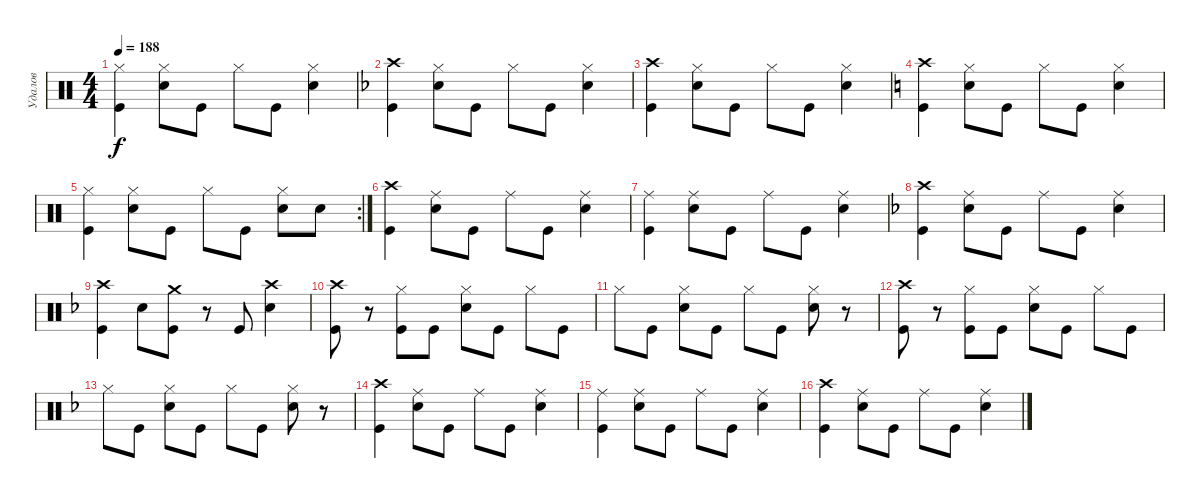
\track ("Удалов" "Удалов") {instrument percussion}
\staff {score}
\articulation defaults
\ts (4 4)
\tempo 188
\clef neutral
\ks c
("Hi-Hat (closed)" "Kick (hit)").4{dy f} ("Hi-Hat (closed)" "Electric Snare (hit)").8 "Kick (hit)".8 "Hi-Hat (closed)".8 "Kick (hit)".8 ("Hi-Hat (closed)" "Electric Snare (hit)").4 |
\ks f
("Crash high (hit)" "Kick (hit)").4 ("Hi-Hat (closed)" "Electric Snare (hit)").8 "Kick (hit)".8 "Hi-Hat (closed)".8 "Kick (hit)".8 ("Hi-Hat (closed)" "Electric Snare (hit)").4 |
("Crash high (hit)" "Kick (hit)").4 ("Hi-Hat (closed)" "Electric Snare (hit)").8 "Kick (hit)".8 "Hi-Hat (closed)".8 "Kick (hit)".8 ("Hi-Hat (closed)" "Electric Snare (hit)").4 |
\ks c
("Crash high (hit)" "Kick (hit)").4 ("Hi-Hat (closed)" "Electric Snare (hit)").8 "Kick (hit)".8 "Hi-Hat (closed)".8 "Kick (hit)".8 ("Hi-Hat (closed)" "Electric Snare (hit)").4 |
\rc 2
("Hi-Hat (closed)" "Kick (hit)").4 ("Hi-Hat (closed)" "Electric Snare (hit)").8 "Kick (hit)".8 "Hi-Hat (closed)".8 "Kick (hit)".8 ("Hi-Hat (closed)" "Electric Snare (hit)").8 "Electric Snare (hit)".8 |
("Crash high (hit)" "Kick (hit)").4 ("Ride (middle)" "Electric Snare (hit)").8 "Kick (hit)".8 "Ride (middle)".8 "Kick (hit)".8 ("Ride (middle)" "Electric Snare (hit)").4 |
("Ride (middle)" "Kick (hit)").4 ("Ride (middle)" "Electric Snare (hit)").8 "Kick (hit)".8 "Ride (middle)".8 "Kick (hit)".8 ("Ride (middle)" "Electric Snare (hit)").4 |
\ks f
("Crash high (hit)" "Kick (hit)").4 ("Ride (middle)" "Electric Snare (hit)").8 "Kick (hit)".8 "Ride (middle)".8 "Kick (hit)".8 ("Ride (middle)" "Electric Snare (hit)").4 |
("Crash high (hit)" "Kick (hit)").4 "Electric Snare (hit)".8 ("Crash medium (hit)" "Kick (hit)").8 r.8 "Kick (hit)".8 ("Crash high (hit)" "Electric Snare (hit)").4 |
("Crash high (hit)" "Kick (hit)").8 r.8 ("Hi-Hat (closed)" "Kick (hit)").8 "Kick (hit)".8 ("Hi-Hat (closed)" "Electric Snare (hit)").8 "Kick (hit)".8 "Hi-Hat (closed)".8 "Kick (hit)".8 |
"Hi-Hat (closed)".8 "Kick (hit)".8 ("Hi-Hat (closed)" "Electric Snare (hit)").8 "Kick (hit)".8 "Hi-Hat (closed)".8 "Kick (hit)".8 ("Hi-Hat (closed)" "Electric Snare (hit)").8 r.8 |
("Crash high (hit)" "Kick (hit)").8 r.8 ("Hi-Hat (closed)" "Kick (hit)").8 "Kick (hit)".8 ("Hi-Hat (closed)" "Electric Snare (hit)").8 "Kick (hit)".8 "Hi-Hat (closed)".8 "Kick (hit)".8 |
"Hi-Hat (closed)".8 "Kick (hit)".8 ("Hi-Hat (closed)" "Electric Snare (hit)").8 "Kick (hit)".8 "Hi-Hat (closed)".8 "Kick (hit)".8 ("Hi-Hat (closed)" "Electric Snare (hit)").8 r.8 |
("Crash high (hit)" "Kick (hit)").4 ("Ride (middle)" "Electric Snare (hit)").8 "Kick (hit)".8 "Ride (middle)".8 "Kick (hit)".8 ("Ride (middle)" "Electric Snare (hit)").4 |
("Ride (middle)" "Kick (hit)").4 ("Ride (middle)" "Electric Snare (hit)").8 "Kick (hit)".8 "Ride (middle)".8 "Kick (hit)".8 ("Ride (middle)" "Electric Snare (hit)").4 |
("Crash high (hit)" "Kick (hit)").4 ("Ride (middle)" "Electric Snare (hit)").8 "Kick (hit)".8 "Ride (middle)".8 "Kick (hit)".8 ("Ride (middle)" "Electric Snare (hit)").4
